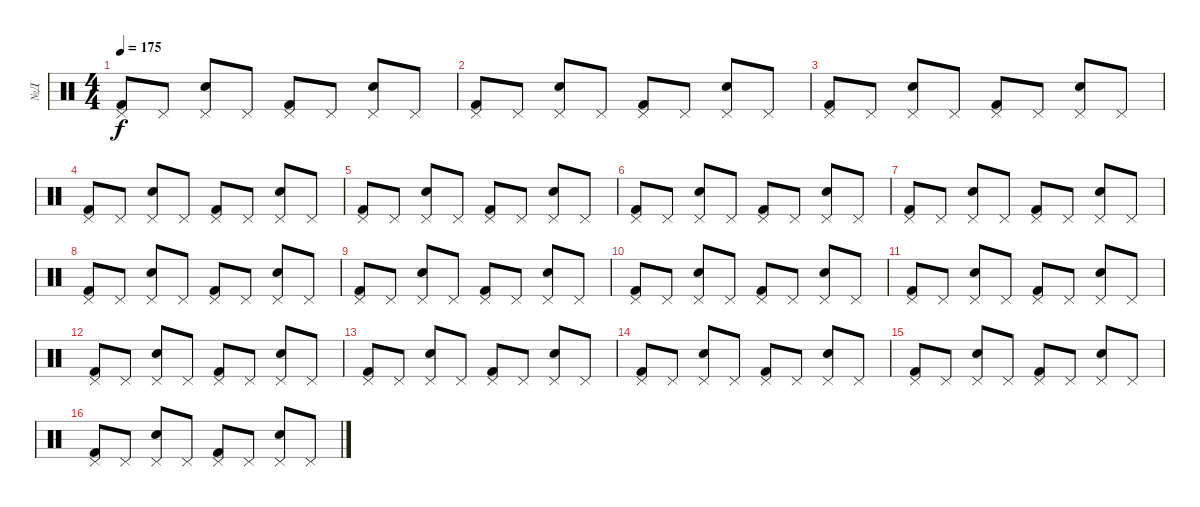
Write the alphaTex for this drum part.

\track ("№Д" "№Д") {instrument percussion}
\staff {score}
\articulation defaults
\ts (4 4)
\tempo 175
\clef neutral
\ks c
("Pedal Hi-Hat (hit)" "Kick (hit) 2").8{dy f} "Pedal Hi-Hat (hit)".8 ("Pedal Hi-Hat (hit)" "Electric Snare (hit)").8 "Pedal Hi-Hat (hit)".8 ("Pedal Hi-Hat (hit)" "Kick (hit) 2").8 "Pedal Hi-Hat (hit)".8 ("Pedal Hi-Hat (hit)" "Electric Snare (hit)").8 "Pedal Hi-Hat (hit)".8 |
("Pedal Hi-Hat (hit)" "Kick (hit) 2").8 "Pedal Hi-Hat (hit)".8 ("Pedal Hi-Hat (hit)" "Electric Snare (hit)").8 "Pedal Hi-Hat (hit)".8 ("Pedal Hi-Hat (hit)" "Kick (hit) 2").8 "Pedal Hi-Hat (hit)".8 ("Pedal Hi-Hat (hit)" "Electric Snare (hit)").8 "Pedal Hi-Hat (hit)".8 |
("Pedal Hi-Hat (hit)" "Kick (hit) 2").8 "Pedal Hi-Hat (hit)".8 ("Pedal Hi-Hat (hit)" "Electric Snare (hit)").8 "Pedal Hi-Hat (hit)".8 ("Pedal Hi-Hat (hit)" "Kick (hit) 2").8 "Pedal Hi-Hat (hit)".8 ("Pedal Hi-Hat (hit)" "Electric Snare (hit)").8 "Pedal Hi-Hat (hit)".8 |
("Pedal Hi-Hat (hit)" "Kick (hit) 2").8 "Pedal Hi-Hat (hit)".8 ("Pedal Hi-Hat (hit)" "Electric Snare (hit)").8 "Pedal Hi-Hat (hit)".8 ("Pedal Hi-Hat (hit)" "Kick (hit) 2").8 "Pedal Hi-Hat (hit)".8 ("Pedal Hi-Hat (hit)" "Electric Snare (hit)").8 "Pedal Hi-Hat (hit)".8 |
("Pedal Hi-Hat (hit)" "Kick (hit) 2").8 "Pedal Hi-Hat (hit)".8 ("Pedal Hi-Hat (hit)" "Electric Snare (hit)").8 "Pedal Hi-Hat (hit)".8 ("Pedal Hi-Hat (hit)" "Kick (hit) 2").8 "Pedal Hi-Hat (hit)".8 ("Pedal Hi-Hat (hit)" "Electric Snare (hit)").8 "Pedal Hi-Hat (hit)".8 |
("Pedal Hi-Hat (hit)" "Kick (hit) 2").8 "Pedal Hi-Hat (hit)".8 ("Pedal Hi-Hat (hit)" "Electric Snare (hit)").8 "Pedal Hi-Hat (hit)".8 ("Pedal Hi-Hat (hit)" "Kick (hit) 2").8 "Pedal Hi-Hat (hit)".8 ("Pedal Hi-Hat (hit)" "Electric Snare (hit)").8 "Pedal Hi-Hat (hit)".8 |
("Pedal Hi-Hat (hit)" "Kick (hit) 2").8 "Pedal Hi-Hat (hit)".8 ("Pedal Hi-Hat (hit)" "Electric Snare (hit)").8 "Pedal Hi-Hat (hit)".8 ("Pedal Hi-Hat (hit)" "Kick (hit) 2").8 "Pedal Hi-Hat (hit)".8 ("Pedal Hi-Hat (hit)" "Electric Snare (hit)").8 "Pedal Hi-Hat (hit)".8 |
("Pedal Hi-Hat (hit)" "Kick (hit) 2").8 "Pedal Hi-Hat (hit)".8 ("Pedal Hi-Hat (hit)" "Electric Snare (hit)").8 "Pedal Hi-Hat (hit)".8 ("Pedal Hi-Hat (hit)" "Kick (hit) 2").8 "Pedal Hi-Hat (hit)".8 ("Pedal Hi-Hat (hit)" "Electric Snare (hit)").8 "Pedal Hi-Hat (hit)".8 |
("Pedal Hi-Hat (hit)" "Kick (hit) 2").8 "Pedal Hi-Hat (hit)".8 ("Pedal Hi-Hat (hit)" "Electric Snare (hit)").8 "Pedal Hi-Hat (hit)".8 ("Pedal Hi-Hat (hit)" "Kick (hit) 2").8 "Pedal Hi-Hat (hit)".8 ("Pedal Hi-Hat (hit)" "Electric Snare (hit)").8 "Pedal Hi-Hat (hit)".8 |
("Pedal Hi-Hat (hit)" "Kick (hit) 2").8 "Pedal Hi-Hat (hit)".8 ("Pedal Hi-Hat (hit)" "Electric Snare (hit)").8 "Pedal Hi-Hat (hit)".8 ("Pedal Hi-Hat (hit)" "Kick (hit) 2").8 "Pedal Hi-Hat (hit)".8 ("Pedal Hi-Hat (hit)" "Electric Snare (hit)").8 "Pedal Hi-Hat (hit)".8 |
("Pedal Hi-Hat (hit)" "Kick (hit) 2").8 "Pedal Hi-Hat (hit)".8 ("Pedal Hi-Hat (hit)" "Electric Snare (hit)").8 "Pedal Hi-Hat (hit)".8 ("Pedal Hi-Hat (hit)" "Kick (hit) 2").8 "Pedal Hi-Hat (hit)".8 ("Pedal Hi-Hat (hit)" "Electric Snare (hit)").8 "Pedal Hi-Hat (hit)".8 |
("Pedal Hi-Hat (hit)" "Kick (hit) 2").8 "Pedal Hi-Hat (hit)".8 ("Pedal Hi-Hat (hit)" "Electric Snare (hit)").8 "Pedal Hi-Hat (hit)".8 ("Pedal Hi-Hat (hit)" "Kick (hit) 2").8 "Pedal Hi-Hat (hit)".8 ("Pedal Hi-Hat (hit)" "Electric Snare (hit)").8 "Pedal Hi-Hat (hit)".8 |
("Pedal Hi-Hat (hit)" "Kick (hit) 2").8 "Pedal Hi-Hat (hit)".8 ("Pedal Hi-Hat (hit)" "Electric Snare (hit)").8 "Pedal Hi-Hat (hit)".8 ("Pedal Hi-Hat (hit)" "Kick (hit) 2").8 "Pedal Hi-Hat (hit)".8 ("Pedal Hi-Hat (hit)" "Electric Snare (hit)").8 "Pedal Hi-Hat (hit)".8 |
("Pedal Hi-Hat (hit)" "Kick (hit) 2").8 "Pedal Hi-Hat (hit)".8 ("Pedal Hi-Hat (hit)" "Electric Snare (hit)").8 "Pedal Hi-Hat (hit)".8 ("Pedal Hi-Hat (hit)" "Kick (hit) 2").8 "Pedal Hi-Hat (hit)".8 ("Pedal Hi-Hat (hit)" "Electric Snare (hit)").8 "Pedal Hi-Hat (hit)".8 |
("Pedal Hi-Hat (hit)" "Kick (hit) 2").8 "Pedal Hi-Hat (hit)".8 ("Pedal Hi-Hat (hit)" "Electric Snare (hit)").8 "Pedal Hi-Hat (hit)".8 ("Pedal Hi-Hat (hit)" "Kick (hit) 2").8 "Pedal Hi-Hat (hit)".8 ("Pedal Hi-Hat (hit)" "Electric Snare (hit)").8 "Pedal Hi-Hat (hit)".8 |
("Pedal Hi-Hat (hit)" "Kick (hit) 2").8 "Pedal Hi-Hat (hit)".8 ("Pedal Hi-Hat (hit)" "Electric Snare (hit)").8 "Pedal Hi-Hat (hit)".8 ("Pedal Hi-Hat (hit)" "Kick (hit) 2").8 "Pedal Hi-Hat (hit)".8 ("Pedal Hi-Hat (hit)" "Electric Snare (hit)").8 "Pedal Hi-Hat (hit)".8
